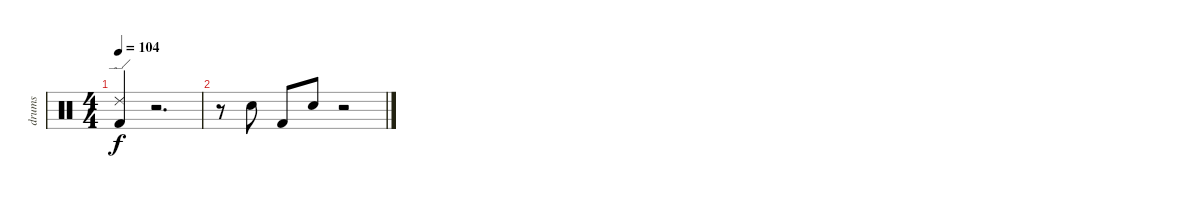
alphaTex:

\track ("drums" "drums") {instrument percussion}
\staff {score}
\articulation defaults
\ts (4 4)
\tempo 104
\clef neutral
\ks c
("Kick (hit) 2" "Ride (edge) 2").4{dy f} r.2{d} |
r.8 "Snare (hit) 2".8 "Kick (hit) 2".8 "Snare (hit) 2".8 r.2
